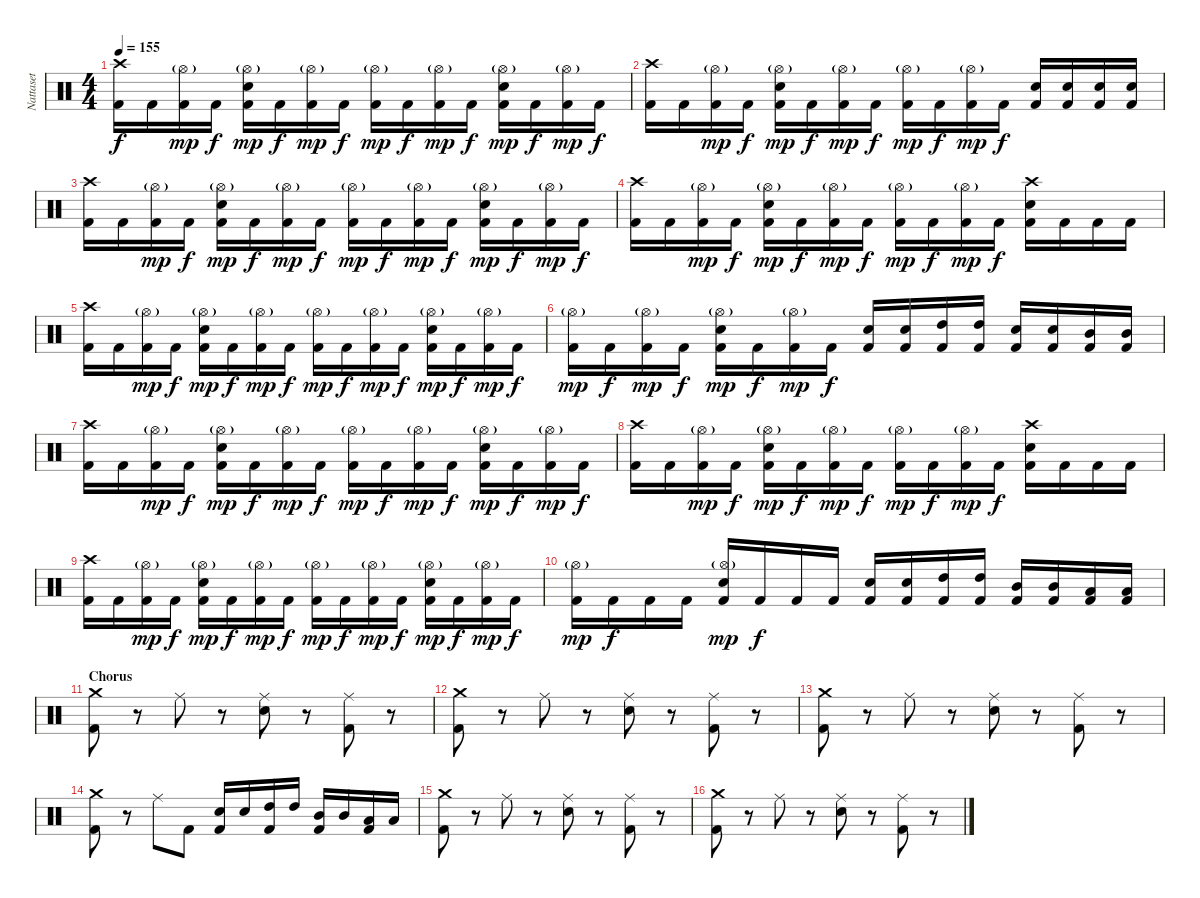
\track ("Nattaset" "Nattaset") {instrument percussion}
\staff {score}
\articulation defaults
\ts (4 4)
\tempo 155
\clef neutral
\ks c
("Crash high (hit)" "Kick (hit) 2").16{dy f} "Kick (hit) 2".16 ("Hi-Hat (open)"{g} "Kick (hit) 2").16{dy mp} "Kick (hit) 2".16{dy f} ("Hi-Hat (open)"{g} "Electric Snare (hit)" "Kick (hit) 2").16{dy mp} "Kick (hit) 2".16{dy f} ("Hi-Hat (open)"{g} "Kick (hit) 2").16{dy mp} "Kick (hit) 2".16{dy f} ("Hi-Hat (open)"{g} "Kick (hit) 2").16{dy mp} "Kick (hit) 2".16{dy f} ("Hi-Hat (open)"{g} "Kick (hit) 2").16{dy mp} "Kick (hit) 2".16{dy f} ("Hi-Hat (open)"{g} "Electric Snare (hit)" "Kick (hit) 2").16{dy mp} "Kick (hit) 2".16{dy f} ("Hi-Hat (open)"{g} "Kick (hit) 2").16{dy mp} "Kick (hit) 2".16{dy f} |
("Crash high (hit)" "Kick (hit) 2").16 "Kick (hit) 2".16 ("Hi-Hat (open)"{g} "Kick (hit) 2").16{dy mp} "Kick (hit) 2".16{dy f} ("Hi-Hat (open)"{g} "Electric Snare (hit)" "Kick (hit) 2").16{dy mp} "Kick (hit) 2".16{dy f} ("Hi-Hat (open)"{g} "Kick (hit) 2").16{dy mp} "Kick (hit) 2".16{dy f} ("Hi-Hat (open)"{g} "Kick (hit) 2").16{dy mp} "Kick (hit) 2".16{dy f} ("Hi-Hat (open)"{g} "Kick (hit) 2").16{dy mp} "Kick (hit) 2".16{dy f} ("Electric Snare (hit)" "Kick (hit) 2").16 ("Electric Snare (hit)" "Kick (hit) 2").16 ("Electric Snare (hit)" "Kick (hit) 2").16 ("Electric Snare (hit)" "Kick (hit) 2").16 |
("Crash high (hit)" "Kick (hit) 2").16 "Kick (hit) 2".16 ("Hi-Hat (open)"{g} "Kick (hit) 2").16{dy mp} "Kick (hit) 2".16{dy f} ("Hi-Hat (open)"{g} "Electric Snare (hit)" "Kick (hit) 2").16{dy mp} "Kick (hit) 2".16{dy f} ("Hi-Hat (open)"{g} "Kick (hit) 2").16{dy mp} "Kick (hit) 2".16{dy f} ("Hi-Hat (open)"{g} "Kick (hit) 2").16{dy mp} "Kick (hit) 2".16{dy f} ("Hi-Hat (open)"{g} "Kick (hit) 2").16{dy mp} "Kick (hit) 2".16{dy f} ("Hi-Hat (open)"{g} "Electric Snare (hit)" "Kick (hit) 2").16{dy mp} "Kick (hit) 2".16{dy f} ("Hi-Hat (open)"{g} "Kick (hit) 2").16{dy mp} "Kick (hit) 2".16{dy f} |
("Crash high (hit)" "Kick (hit) 2").16 "Kick (hit) 2".16 ("Hi-Hat (open)"{g} "Kick (hit) 2").16{dy mp} "Kick (hit) 2".16{dy f} ("Hi-Hat (open)"{g} "Electric Snare (hit)" "Kick (hit) 2").16{dy mp} "Kick (hit) 2".16{dy f} ("Hi-Hat (open)"{g} "Kick (hit) 2").16{dy mp} "Kick (hit) 2".16{dy f} ("Hi-Hat (open)"{g} "Kick (hit) 2").16{dy mp} "Kick (hit) 2".16{dy f} ("Hi-Hat (open)"{g} "Kick (hit) 2").16{dy mp} "Kick (hit) 2".16{dy f} ("Crash high (hit)" "Electric Snare (hit)" "Kick (hit) 2").16 "Kick (hit) 2".16 "Kick (hit) 2".16 "Kick (hit) 2".16 |
("Crash high (hit)" "Kick (hit) 2").16 "Kick (hit) 2".16 ("Hi-Hat (open)"{g} "Kick (hit) 2").16{dy mp} "Kick (hit) 2".16{dy f} ("Hi-Hat (open)"{g} "Electric Snare (hit)" "Kick (hit) 2").16{dy mp} "Kick (hit) 2".16{dy f} ("Hi-Hat (open)"{g} "Kick (hit) 2").16{dy mp} "Kick (hit) 2".16{dy f} ("Hi-Hat (open)"{g} "Kick (hit) 2").16{dy mp} "Kick (hit) 2".16{dy f} ("Hi-Hat (open)"{g} "Kick (hit) 2").16{dy mp} "Kick (hit) 2".16{dy f} ("Hi-Hat (open)"{g} "Electric Snare (hit)" "Kick (hit) 2").16{dy mp} "Kick (hit) 2".16{dy f} ("Hi-Hat (open)"{g} "Kick (hit) 2").16{dy mp} "Kick (hit) 2".16{dy f} |
("Hi-Hat (open)"{g} "Kick (hit) 2").16{dy mp} "Kick (hit) 2".16{dy f} ("Hi-Hat (open)"{g} "Kick (hit) 2").16{dy mp} "Kick (hit) 2".16{dy f} ("Hi-Hat (open)"{g} "Electric Snare (hit)" "Kick (hit) 2").16{dy mp} "Kick (hit) 2".16{dy f} ("Hi-Hat (open)"{g} "Kick (hit) 2").16{dy mp} "Kick (hit) 2".16{dy f} ("Electric Snare (hit)" "Kick (hit) 2").16 ("Electric Snare (hit)" "Kick (hit) 2").16 ("High Tom (hit)" "Kick (hit) 2").16 ("High Tom (hit)" "Kick (hit) 2").16 ("Electric Snare (hit)" "Kick (hit) 2").16 ("Electric Snare (hit)" "Kick (hit) 2").16 ("Mid Tom (hit)" "Kick (hit) 2").16 ("Mid Tom (hit)" "Kick (hit) 2").16 |
("Crash high (hit)" "Kick (hit) 2").16 "Kick (hit) 2".16 ("Hi-Hat (open)"{g} "Kick (hit) 2").16{dy mp} "Kick (hit) 2".16{dy f} ("Hi-Hat (open)"{g} "Electric Snare (hit)" "Kick (hit) 2").16{dy mp} "Kick (hit) 2".16{dy f} ("Hi-Hat (open)"{g} "Kick (hit) 2").16{dy mp} "Kick (hit) 2".16{dy f} ("Hi-Hat (open)"{g} "Kick (hit) 2").16{dy mp} "Kick (hit) 2".16{dy f} ("Hi-Hat (open)"{g} "Kick (hit) 2").16{dy mp} "Kick (hit) 2".16{dy f} ("Hi-Hat (open)"{g} "Electric Snare (hit)" "Kick (hit) 2").16{dy mp} "Kick (hit) 2".16{dy f} ("Hi-Hat (open)"{g} "Kick (hit) 2").16{dy mp} "Kick (hit) 2".16{dy f} |
("Crash high (hit)" "Kick (hit) 2").16 "Kick (hit) 2".16 ("Hi-Hat (open)"{g} "Kick (hit) 2").16{dy mp} "Kick (hit) 2".16{dy f} ("Hi-Hat (open)"{g} "Electric Snare (hit)" "Kick (hit) 2").16{dy mp} "Kick (hit) 2".16{dy f} ("Hi-Hat (open)"{g} "Kick (hit) 2").16{dy mp} "Kick (hit) 2".16{dy f} ("Hi-Hat (open)"{g} "Kick (hit) 2").16{dy mp} "Kick (hit) 2".16{dy f} ("Hi-Hat (open)"{g} "Kick (hit) 2").16{dy mp} "Kick (hit) 2".16{dy f} ("Crash high (hit)" "Electric Snare (hit)" "Kick (hit) 2").16 "Kick (hit) 2".16 "Kick (hit) 2".16 "Kick (hit) 2".16 |
("Crash high (hit)" "Kick (hit) 2").16 "Kick (hit) 2".16 ("Hi-Hat (open)"{g} "Kick (hit) 2").16{dy mp} "Kick (hit) 2".16{dy f} ("Hi-Hat (open)"{g} "Electric Snare (hit)" "Kick (hit) 2").16{dy mp} "Kick (hit) 2".16{dy f} ("Hi-Hat (open)"{g} "Kick (hit) 2").16{dy mp} "Kick (hit) 2".16{dy f} ("Hi-Hat (open)"{g} "Kick (hit) 2").16{dy mp} "Kick (hit) 2".16{dy f} ("Hi-Hat (open)"{g} "Kick (hit) 2").16{dy mp} "Kick (hit) 2".16{dy f} ("Hi-Hat (open)"{g} "Electric Snare (hit)" "Kick (hit) 2").16{dy mp} "Kick (hit) 2".16{dy f} ("Hi-Hat (open)"{g} "Kick (hit) 2").16{dy mp} "Kick (hit) 2".16{dy f} |
("Hi-Hat (open)"{g} "Kick (hit) 2").16{dy mp} "Kick (hit) 2".16{dy f} "Kick (hit) 2".16 "Kick (hit) 2".16 ("Hi-Hat (open)"{g} "Electric Snare (hit)" "Kick (hit) 2").16{dy mp} "Kick (hit) 2".16{dy f} "Kick (hit) 2".16 "Kick (hit) 2".16 ("Electric Snare (hit)" "Kick (hit) 2").16 ("Electric Snare (hit)" "Kick (hit) 2").16 ("High Tom (hit)" "Kick (hit) 2").16 ("High Tom (hit)" "Kick (hit) 2").16 ("Mid Tom (hit)" "Kick (hit) 2").16 ("Mid Tom (hit)" "Kick (hit) 2").16 ("Low Tom (hit)" "Kick (hit) 2").16 ("Low Tom (hit)" "Kick (hit) 2").16 |
\section ("" "Chorus")
("Crash medium (hit)" "Kick (hit) 2").8 r.8 "Ride (middle)".8 r.8 ("Ride (middle)" "Electric Snare (hit)").8 r.8 ("Ride (middle)" "Kick (hit) 2").8 r.8 |
("Crash medium (hit)" "Kick (hit) 2").8 r.8 "Ride (middle)".8 r.8 ("Ride (middle)" "Electric Snare (hit)").8 r.8 ("Ride (middle)" "Kick (hit) 2").8 r.8 |
("Crash medium (hit)" "Kick (hit) 2").8 r.8 "Ride (middle)".8 r.8 ("Ride (middle)" "Electric Snare (hit)").8 r.8 ("Ride (middle)" "Kick (hit) 2").8 r.8 |
("Crash medium (hit)" "Kick (hit) 2").8 r.8 "Ride (middle)".8 "Kick (hit) 2".8 ("Electric Snare (hit)" "Kick (hit) 2").16 "Electric Snare (hit)".16 ("High Tom (hit)" "Kick (hit) 2").16 "High Tom (hit)".16 ("Mid Tom (hit)" "Kick (hit) 2").16 "Mid Tom (hit)".16 ("Low Tom (hit)" "Kick (hit) 2").16 "Low Tom (hit)".16 |
("Crash medium (hit)" "Kick (hit) 2").8 r.8 "Ride (middle)".8 r.8 ("Ride (middle)" "Electric Snare (hit)").8 r.8 ("Ride (middle)" "Kick (hit) 2").8 r.8 |
("Crash medium (hit)" "Kick (hit) 2").8 r.8 "Ride (middle)".8 r.8 ("Ride (middle)" "Electric Snare (hit)").8 r.8 ("Ride (middle)" "Kick (hit) 2").8 r.8
